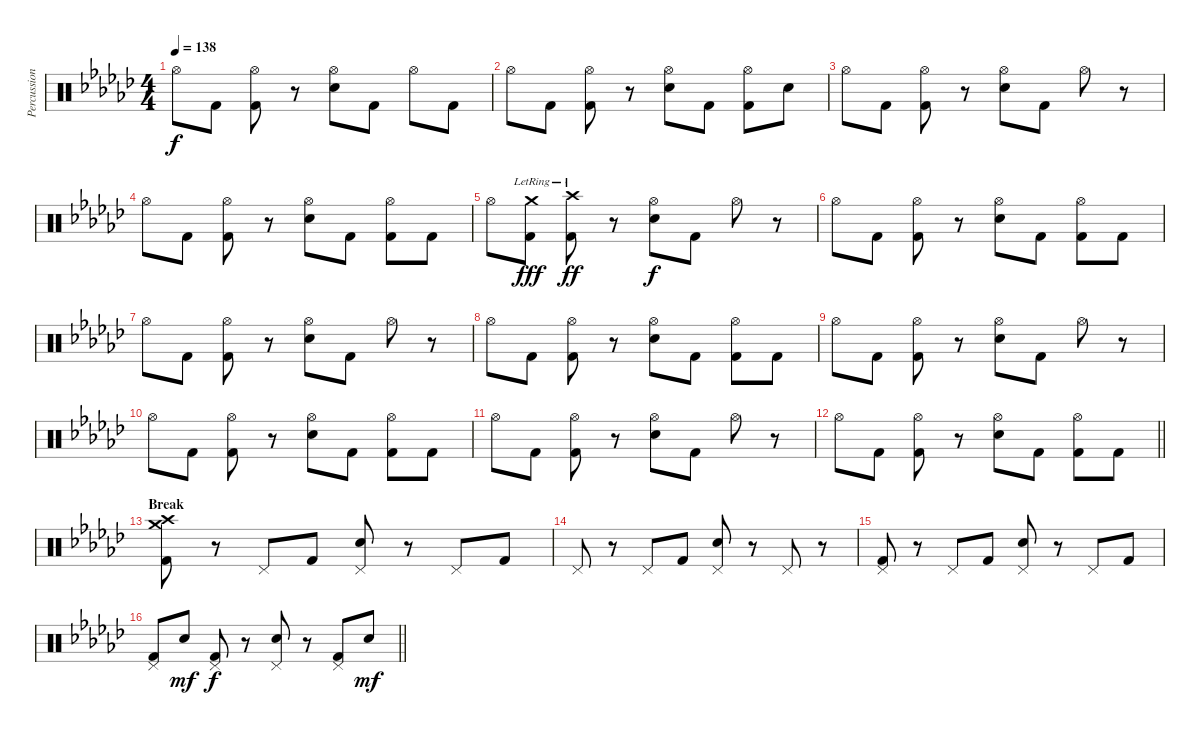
\track ("Percussion" "Percussion") {instrument percussion}
\staff {score}
\articulation defaults
\ts (4 4)
\tempo 138
\clef neutral
\ks gb "Hi-Hat (open)".8{dy f} "Kick (hit) 2".8
("Hi-Hat (open)" "Kick (hit) 2").8 r.8 ("Hi-Hat (open)" "Electric Snare (hit)").8 "Kick (hit) 2".8 "Hi-Hat (open)".8 "Kick (hit) 2".8 |
"Hi-Hat (open)".8 "Kick (hit) 2".8 ("Hi-Hat (open)" "Kick (hit) 2").8 r.8 ("Hi-Hat (open)" "Electric Snare (hit)").8 "Kick (hit) 2".8 ("Hi-Hat (open)" "Kick (hit) 2").8 "Electric Snare (hit)".8 |
"Hi-Hat (open)".8 "Kick (hit) 2".8 ("Hi-Hat (open)" "Kick (hit) 2").8 r.8 ("Hi-Hat (open)" "Electric Snare (hit)").8 "Kick (hit) 2".8 "Hi-Hat (open)".8 r.8 |
"Hi-Hat (open)".8 "Kick (hit) 2".8 ("Hi-Hat (open)" "Kick (hit) 2").8 r.8 ("Hi-Hat (open)" "Electric Snare (hit)").8 "Kick (hit) 2".8 ("Hi-Hat (open)" "Kick (hit) 2").8 "Kick (hit) 2".8 |
"Hi-Hat (open)".8 ("Crash medium (hit)"{lr} "Kick (hit) 2").8{dy fff} ("Crash high (hit)"{lr} "Kick (hit) 2").8{dy ff} r.8 ("Hi-Hat (open)" "Electric Snare (hit)").8{dy f} "Kick (hit) 2".8 "Hi-Hat (open)".8 r.8 |
"Hi-Hat (open)".8 "Kick (hit) 2".8 ("Hi-Hat (open)" "Kick (hit) 2").8 r.8 ("Hi-Hat (open)" "Electric Snare (hit)").8 "Kick (hit) 2".8 ("Hi-Hat (open)" "Kick (hit) 2").8 "Kick (hit) 2".8 |
"Hi-Hat (open)".8 "Kick (hit) 2".8 ("Hi-Hat (open)" "Kick (hit) 2").8 r.8 ("Hi-Hat (open)" "Electric Snare (hit)").8 "Kick (hit) 2".8 "Hi-Hat (open)".8 r.8 |
"Hi-Hat (open)".8 "Kick (hit) 2".8 ("Hi-Hat (open)" "Kick (hit) 2").8 r.8 ("Hi-Hat (open)" "Electric Snare (hit)").8 "Kick (hit) 2".8 ("Hi-Hat (open)" "Kick (hit) 2").8 "Kick (hit) 2".8 |
"Hi-Hat (open)".8 "Kick (hit) 2".8 ("Hi-Hat (open)" "Kick (hit) 2").8 r.8 ("Hi-Hat (open)" "Electric Snare (hit)").8 "Kick (hit) 2".8 "Hi-Hat (open)".8 r.8 |
"Hi-Hat (open)".8 "Kick (hit) 2".8 ("Hi-Hat (open)" "Kick (hit) 2").8 r.8 ("Hi-Hat (open)" "Electric Snare (hit)").8 "Kick (hit) 2".8 ("Hi-Hat (open)" "Kick (hit) 2").8 "Kick (hit) 2".8 |
"Hi-Hat (open)".8 "Kick (hit) 2".8 ("Hi-Hat (open)" "Kick (hit) 2").8 r.8 ("Hi-Hat (open)" "Electric Snare (hit)").8 "Kick (hit) 2".8 "Hi-Hat (open)".8 r.8 |
\barLineRight lightlight "Hi-Hat (open)".8 "Kick (hit) 2".8
("Hi-Hat (open)" "Kick (hit) 2").8 r.8 ("Hi-Hat (open)" "Electric Snare (hit)").8 "Kick (hit) 2".8 ("Hi-Hat (open)" "Kick (hit) 2").8 "Kick (hit) 2".8 |
\section ("" "Break")
("Crash high (hit)" "Crash medium (hit)" "Kick (hit) 2").8 r.8 "Pedal Hi-Hat (hit)".8 "Kick (hit) 2".8 ("Pedal Hi-Hat (hit)" "Electric Snare (hit)").8 r.8 "Pedal Hi-Hat (hit)".8 "Kick (hit) 2".8 |
"Pedal Hi-Hat (hit)".8 r.8 "Pedal Hi-Hat (hit)".8 "Kick (hit) 2".8 ("Pedal Hi-Hat (hit)" "Electric Snare (hit)").8 r.8 "Pedal Hi-Hat (hit)".8 r.8 |
("Pedal Hi-Hat (hit)" "Kick (hit) 2").8 r.8 "Pedal Hi-Hat (hit)".8 "Kick (hit) 2".8 ("Pedal Hi-Hat (hit)" "Electric Snare (hit)").8 r.8 "Pedal Hi-Hat (hit)".8 "Kick (hit) 2".8 |
\barLineRight lightlight
("Pedal Hi-Hat (hit)" "Kick (hit) 2").8 "Electric Snare (hit)".8{dy mf} ("Pedal Hi-Hat (hit)" "Kick (hit) 2").8{dy f} r.8 ("Pedal Hi-Hat (hit)" "Electric Snare (hit)").8 r.8 ("Pedal Hi-Hat (hit)" "Kick (hit) 2").8 "Electric Snare (hit)".8{dy mf}
